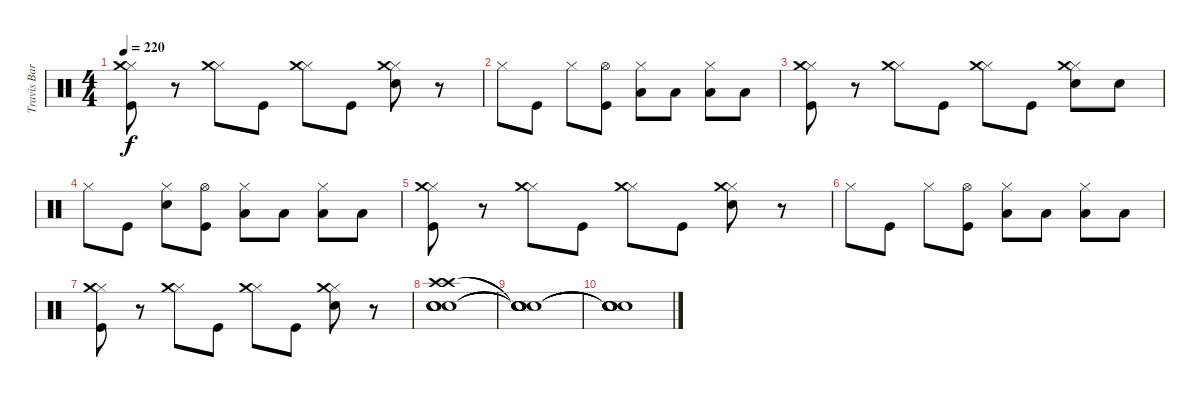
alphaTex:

\track ("Travis Barker" "Travis Bar") {instrument percussion}
\staff {score}
\articulation defaults
\ts (4 4)
\tempo 220
\clef neutral
\ks c
("Kick (hit)" "Hi-Hat (closed)" "Crash medium (hit)").8{dy f} r.8 ("Hi-Hat (closed)" "Crash medium (hit)").8 "Kick (hit)".8 ("Hi-Hat (closed)" "Crash medium (hit)").8 "Kick (hit)".8 ("Electric Snare (hit)" "Hi-Hat (closed)" "Crash medium (hit)").8 r.8 |
"Hi-Hat (closed)".8 "Kick (hit)".8 "Hi-Hat (closed)".8 ("Kick (hit)" "Hi-Hat (open)").8 ("Low Tom (hit)" "Hi-Hat (closed)").8 "Low Tom (hit)".8 ("Low Floor Tom (hit)" "Hi-Hat (closed)").8 "Low Floor Tom (hit)".8 |
("Kick (hit)" "Hi-Hat (closed)" "Crash medium (hit)").8 r.8 ("Hi-Hat (closed)" "Crash medium (hit)").8 "Kick (hit)".8 ("Hi-Hat (closed)" "Crash medium (hit)").8 "Kick (hit)".8 ("Electric Snare (hit)" "Hi-Hat (closed)" "Crash medium (hit)").8 "Electric Snare (hit)".8 |
"Hi-Hat (closed)".8 "Kick (hit)".8 ("Electric Snare (hit)" "Hi-Hat (closed)").8 ("Kick (hit)" "Hi-Hat (open)").8 ("Low Tom (hit)" "Hi-Hat (closed)").8 "Low Tom (hit)".8 ("Low Floor Tom (hit)" "Hi-Hat (closed)").8 "Low Floor Tom (hit)".8 |
("Kick (hit)" "Hi-Hat (closed)" "Crash medium (hit)").8 r.8 ("Hi-Hat (closed)" "Crash medium (hit)").8 "Kick (hit)".8 ("Hi-Hat (closed)" "Crash medium (hit)").8 "Kick (hit)".8 ("Electric Snare (hit)" "Hi-Hat (closed)" "Crash medium (hit)").8 r.8 |
"Hi-Hat (closed)".8 "Kick (hit)".8 "Hi-Hat (closed)".8 ("Kick (hit)" "Hi-Hat (open)").8 ("Low Tom (hit)" "Hi-Hat (closed)").8 "Low Tom (hit)".8 ("Low Floor Tom (hit)" "Hi-Hat (closed)").8 "Low Floor Tom (hit)".8 |
("Kick (hit)" "Hi-Hat (closed)" "Crash medium (hit)").8 r.8 ("Hi-Hat (closed)" "Crash medium (hit)").8 "Kick (hit)".8 ("Hi-Hat (closed)" "Crash medium (hit)").8 "Kick (hit)".8 ("Electric Snare (hit)" "Hi-Hat (closed)" "Crash medium (hit)").8 r.8 |
("Snare (hit) 2" "Snare (hit) 2" "Crash high (hit)" "Crash high (hit)" "Snare (hit) 2" "Snare (hit) 2").1 |
("Snare (hit)"{t} "Snare (hit)"{t} "Snare (hit)"{t} "Snare (hit)"{t} "Snare (hit)"{t} "Snare (hit)"{t}).1 |
("Snare (hit)"{t} "Snare (hit)"{t} "Snare (hit)"{t} "Snare (hit)"{t} "Snare (hit)"{t} "Snare (hit)"{t}).1
